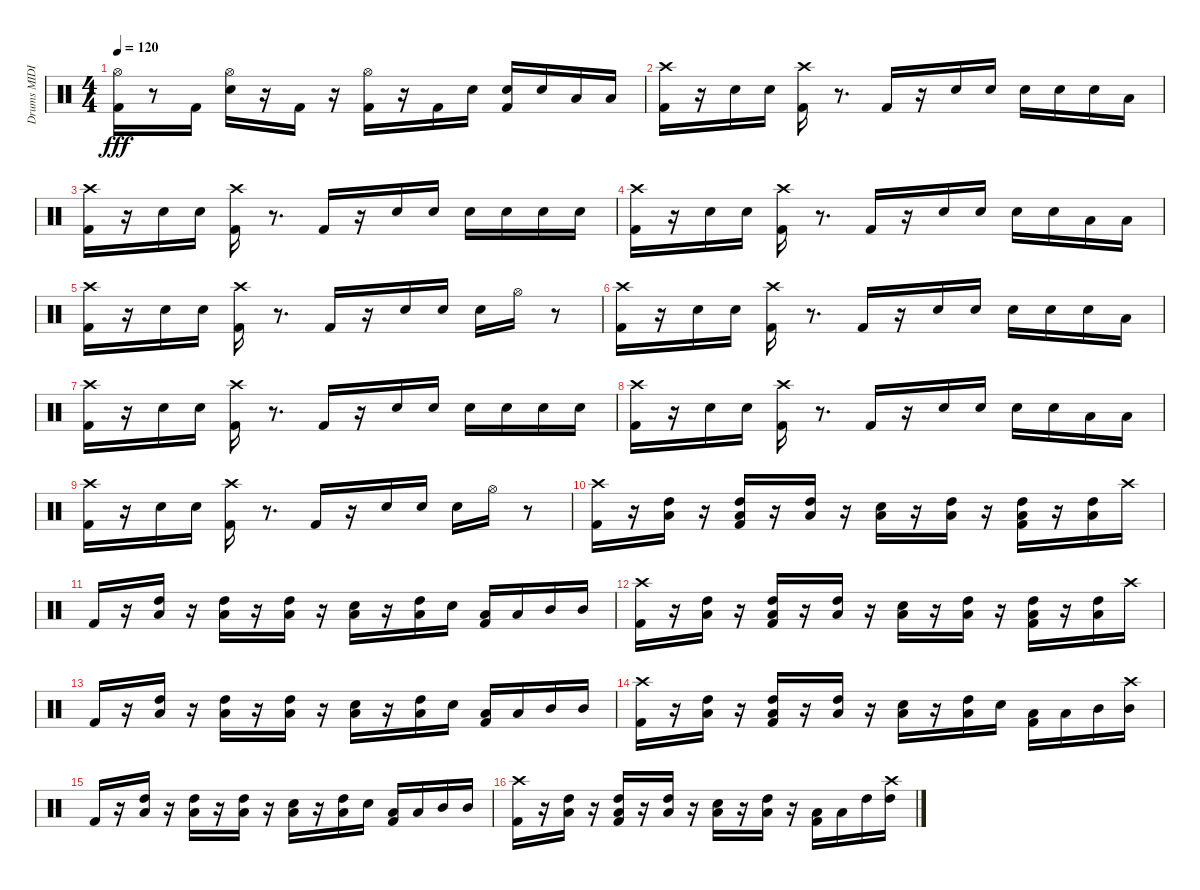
\track ("Drums MIDI" "Drums MIDI") {instrument percussion}
\staff {score}
\articulation defaults
\ts (4 4)
\tempo 120
\clef neutral
\ks c
("Kick (hit) 2" "Hi-Hat (open)").16{dy fff} r.8 "Kick (hit) 2".16 ("Snare (hit) 2" "Hi-Hat (open)").16 r.16 "Kick (hit) 2".16 r.16 ("Kick (hit) 2" "Hi-Hat (open)").16 r.16 "Kick (hit) 2".16 "Snare (hit) 2".16 ("Kick (hit) 2" "Snare (hit) 2").16 "Snare (hit) 2".16 "Low Tom (hit)".16 "Low Tom (hit)".16 |
("Kick (hit) 2" "Crash high (hit)").16 r.16 "Snare (hit) 2".16 "Snare (hit) 2".16 ("Kick (hit) 2" "Crash high (hit)").16 r.8{d} "Kick (hit) 2".16 r.16 "Snare (hit) 2".16 "Snare (hit) 2".16 "Snare (hit) 2".16 "Snare (hit) 2".16 "Snare (hit) 2".16 "Low Tom (hit)".16 |
("Kick (hit) 2" "Crash high (hit)").16 r.16 "Snare (hit) 2".16 "Snare (hit) 2".16 ("Kick (hit) 2" "Crash high (hit)").16 r.8{d} "Kick (hit) 2".16 r.16 "Snare (hit) 2".16 "Snare (hit) 2".16 "Snare (hit) 2".16 "Snare (hit) 2".16 "Snare (hit) 2".16 "Snare (hit) 2".16 |
("Kick (hit) 2" "Crash high (hit)").16 r.16 "Snare (hit) 2".16 "Snare (hit) 2".16 ("Kick (hit) 2" "Crash high (hit)").16 r.8{d} "Kick (hit) 2".16 r.16 "Snare (hit) 2".16 "Snare (hit) 2".16 "Snare (hit) 2".16 "Snare (hit) 2".16 "Low Tom (hit)".16 "Low Tom (hit)".16 |
("Kick (hit) 2" "Crash high (hit)").16 r.16 "Snare (hit) 2".16 "Snare (hit) 2".16 ("Kick (hit) 2" "Crash high (hit)").16 r.8{d} "Kick (hit) 2".16 r.16 "Snare (hit) 2".16 "Snare (hit) 2".16 "Snare (hit) 2".16 "Hi-Hat (open)".16 r.8 |
("Kick (hit) 2" "Crash high (hit)").16 r.16 "Snare (hit) 2".16 "Snare (hit) 2".16 ("Kick (hit) 2" "Crash high (hit)").16 r.8{d} "Kick (hit) 2".16 r.16 "Snare (hit) 2".16 "Snare (hit) 2".16 "Snare (hit) 2".16 "Snare (hit) 2".16 "Snare (hit) 2".16 "Low Tom (hit)".16 |
("Kick (hit) 2" "Crash high (hit)").16 r.16 "Snare (hit) 2".16 "Snare (hit) 2".16 ("Kick (hit) 2" "Crash high (hit)").16 r.8{d} "Kick (hit) 2".16 r.16 "Snare (hit) 2".16 "Snare (hit) 2".16 "Snare (hit) 2".16 "Snare (hit) 2".16 "Snare (hit) 2".16 "Snare (hit) 2".16 |
("Kick (hit) 2" "Crash high (hit)").16 r.16 "Snare (hit) 2".16 "Snare (hit) 2".16 ("Kick (hit) 2" "Crash high (hit)").16 r.8{d} "Kick (hit) 2".16 r.16 "Snare (hit) 2".16 "Snare (hit) 2".16 "Snare (hit) 2".16 "Snare (hit) 2".16 "Low Tom (hit)".16 "Low Tom (hit)".16 |
("Kick (hit) 2" "Crash high (hit)").16 r.16 "Snare (hit) 2".16 "Snare (hit) 2".16 ("Kick (hit) 2" "Crash high (hit)").16 r.8{d} "Kick (hit) 2".16 r.16 "Snare (hit) 2".16 "Snare (hit) 2".16 "Snare (hit) 2".16 "Hi-Hat (open)".16 r.8 |
("Kick (hit) 2" "Crash high (hit)").16 r.16 ("Low Tom (hit)" "High Tom (hit)").16 r.16 ("Kick (hit) 2" "Low Tom (hit)" "High Tom (hit)").16 r.16 ("Low Tom (hit)" "High Tom (hit)").16 r.16 ("Snare (hit) 2" "Low Tom (hit)").16 r.16 ("Low Tom (hit)" "High Tom (hit)").16 r.16 ("Kick (hit) 2" "Low Tom (hit)" "High Tom (hit)").16 r.16 ("Low Tom (hit)" "High Tom (hit)").16 "Crash high (hit)".16 |
"Kick (hit) 2".16 r.16 ("Low Tom (hit)" "High Tom (hit)").16 r.16 ("Low Tom (hit)" "High Tom (hit)").16 r.16 ("Low Tom (hit)" "High Tom (hit)").16 r.16 ("Snare (hit) 2" "Low Tom (hit)").16 r.16 ("Low Tom (hit)" "High Tom (hit)").16 "Electric Snare (hit)".16 ("Kick (hit) 2" "Low Tom (hit)").16 "Low Tom (hit)".16 "Mid Tom (hit)".16 "Mid Tom (hit)".16 |
("Kick (hit) 2" "Crash high (hit)").16 r.16 ("Low Tom (hit)" "High Tom (hit)").16 r.16 ("Kick (hit) 2" "Low Tom (hit)" "High Tom (hit)").16 r.16 ("Low Tom (hit)" "High Tom (hit)").16 r.16 ("Snare (hit) 2" "Low Tom (hit)").16 r.16 ("Low Tom (hit)" "High Tom (hit)").16 r.16 ("Kick (hit) 2" "Low Tom (hit)" "High Tom (hit)").16 r.16 ("Low Tom (hit)" "High Tom (hit)").16 "Crash high (hit)".16 |
"Kick (hit) 2".16 r.16 ("Low Tom (hit)" "High Tom (hit)").16 r.16 ("Low Tom (hit)" "High Tom (hit)").16 r.16 ("Low Tom (hit)" "High Tom (hit)").16 r.16 ("Snare (hit) 2" "Low Tom (hit)").16 r.16 ("Low Tom (hit)" "High Tom (hit)").16 "Electric Snare (hit)".16 ("Kick (hit) 2" "Low Tom (hit)").16 "Low Tom (hit)".16 "Mid Tom (hit)".16 "Mid Tom (hit)".16 |
("Kick (hit) 2" "Crash high (hit)").16 r.16 ("Low Tom (hit)" "High Tom (hit)").16 r.16 ("Kick (hit) 2" "Low Tom (hit)" "High Tom (hit)").16 r.16 ("Low Tom (hit)" "High Tom (hit)").16 r.16 ("Snare (hit) 2" "Low Tom (hit)").16 r.16 ("Low Tom (hit)" "High Tom (hit)").16 "Snare (hit) 2".16 ("Kick (hit) 2" "Low Tom (hit)").16 "Low Tom (hit)".16 "Mid Tom (hit)".16 ("Mid Tom (hit)" "Crash high (hit)").16 |
"Kick (hit) 2".16 r.16 ("Low Tom (hit)" "High Tom (hit)").16 r.16 ("Low Tom (hit)" "High Tom (hit)").16 r.16 ("Low Tom (hit)" "High Tom (hit)").16 r.16 ("Snare (hit) 2" "Low Tom (hit)").16 r.16 ("Low Tom (hit)" "High Tom (hit)").16 "Electric Snare (hit)".16 ("Kick (hit) 2" "Low Tom (hit)").16 "Low Tom (hit)".16 "Mid Tom (hit)".16 "Mid Tom (hit)".16 |
("Kick (hit) 2" "Crash high (hit)").16 r.16 ("Low Tom (hit)" "High Tom (hit)").16 r.16 ("Kick (hit) 2" "Low Tom (hit)" "High Tom (hit)").16 r.16 ("Low Tom (hit)" "High Tom (hit)").16 r.16 ("Snare (hit) 2" "Low Tom (hit)").16 r.16 ("Low Tom (hit)" "High Tom (hit)").16 r.16 ("Kick (hit) 2" "Low Tom (hit)").16 "Low Tom (hit)".16 "High Tom (hit)".16 ("High Tom (hit)" "Crash high (hit)").16
